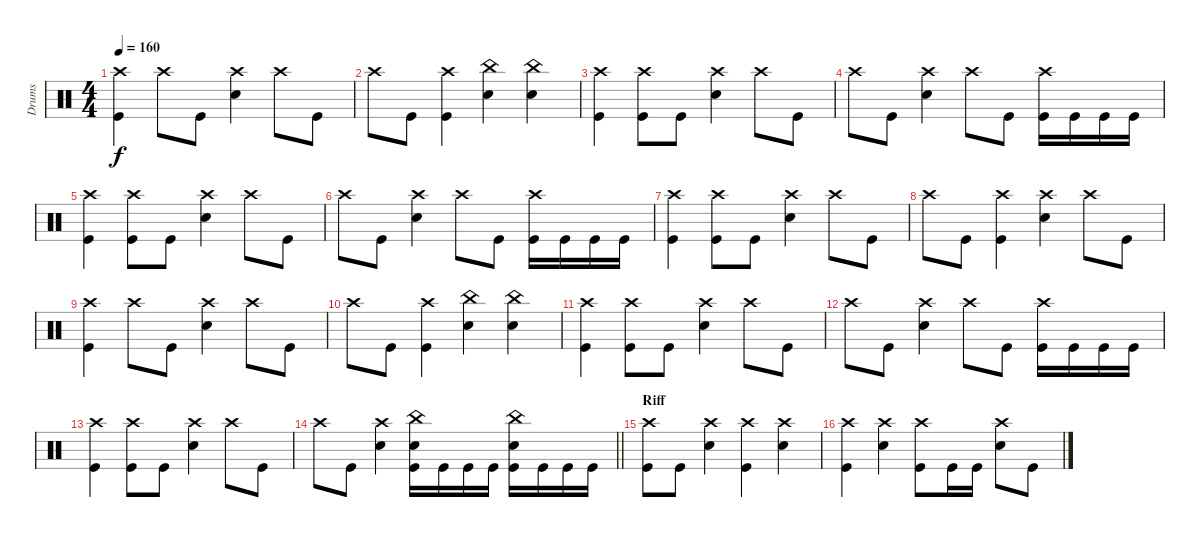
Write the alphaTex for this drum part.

\track ("Drums" "Drums") {instrument percussion}
\staff {score}
\articulation defaults
\ts (4 4)
\tempo 160
\clef neutral
\ks c
("Kick (hit)" "Crash high (hit)").4{dy f} "Crash high (hit)".8 "Kick (hit)".8 ("Snare (hit) 2" "Crash high (hit)").4 "Crash high (hit)".8 "Kick (hit)".8 |
"Crash high (hit)".8 "Kick (hit)".8 ("Kick (hit)" "Crash high (hit)").4 ("Snare (hit) 2" "China (hit)").4 ("Snare (hit) 2" "China (hit)").4 |
("Kick (hit)" "Crash high (hit)").4 ("Kick (hit)" "Crash high (hit)").8 "Kick (hit)".8 ("Crash high (hit)" "Snare (hit) 2").4 "Crash high (hit)".8 "Kick (hit)".8 |
"Crash high (hit)".8 "Kick (hit)".8 ("Snare (hit) 2" "Crash high (hit)").4 "Crash high (hit)".8 "Kick (hit)".8 ("Kick (hit)" "Crash high (hit)").16 "Kick (hit)".16 "Kick (hit)".16 "Kick (hit)".16 |
("Kick (hit)" "Crash high (hit)").4 ("Kick (hit)" "Crash high (hit)").8 "Kick (hit)".8 ("Crash high (hit)" "Snare (hit) 2").4 "Crash high (hit)".8 "Kick (hit)".8 |
"Crash high (hit)".8 "Kick (hit)".8 ("Snare (hit) 2" "Crash high (hit)").4 "Crash high (hit)".8 "Kick (hit)".8 ("Kick (hit)" "Crash high (hit)").16 "Kick (hit)".16 "Kick (hit)".16 "Kick (hit)".16 |
("Kick (hit)" "Crash high (hit)").4 ("Kick (hit)" "Crash high (hit)").8 "Kick (hit)".8 ("Snare (hit) 2" "Crash high (hit)").4 "Crash high (hit)".8 "Kick (hit)".8 |
"Crash high (hit)".8 "Kick (hit)".8 ("Kick (hit)" "Crash high (hit)").4 ("Snare (hit) 2" "Crash high (hit)").4 "Crash high (hit)".8 "Kick (hit)".8 |
("Kick (hit)" "Crash high (hit)").4 "Crash high (hit)".8 "Kick (hit)".8 ("Snare (hit) 2" "Crash high (hit)").4 "Crash high (hit)".8 "Kick (hit)".8 |
"Crash high (hit)".8 "Kick (hit)".8 ("Kick (hit)" "Crash high (hit)").4 ("Snare (hit) 2" "China (hit)").4 ("Snare (hit) 2" "China (hit)").4 |
("Kick (hit)" "Crash high (hit)").4 ("Kick (hit)" "Crash high (hit)").8 "Kick (hit)".8 ("Crash high (hit)" "Snare (hit) 2").4 "Crash high (hit)".8 "Kick (hit)".8 |
"Crash high (hit)".8 "Kick (hit)".8 ("Snare (hit) 2" "Crash high (hit)").4 "Crash high (hit)".8 "Kick (hit)".8 ("Kick (hit)" "Crash high (hit)").16 "Kick (hit)".16 "Kick (hit)".16 "Kick (hit)".16 |
("Kick (hit)" "Crash high (hit)").4 ("Kick (hit)" "Crash high (hit)").8 "Kick (hit)".8 ("Crash high (hit)" "Snare (hit) 2").4 "Crash high (hit)".8 "Kick (hit)".8 |
\barLineRight lightlight "Crash high (hit)".8 "Kick (hit)".8
("Snare (hit) 2" "Crash high (hit)").4 ("Kick (hit)" "China (hit)" "Snare (hit) 2").16 "Kick (hit)".16 "Kick (hit)".16 "Kick (hit)".16 ("Kick (hit)" "China (hit)" "Snare (hit) 2").16 "Kick (hit)".16 "Kick (hit)".16 "Kick (hit)".16 |
\section ("" "Riff")
("Kick (hit)" "Crash high (hit)").8 "Kick (hit)".8 ("Snare (hit) 2" "Crash high (hit)").4 ("Kick (hit)" "Crash high (hit)").4 ("Snare (hit) 2" "Crash high (hit)").4 |
("Kick (hit)" "Crash high (hit)").4 ("Snare (hit) 2" "Crash high (hit)").4 ("Kick (hit)" "Crash high (hit)").8 "Kick (hit)".16 "Kick (hit)".16 ("Snare (hit) 2" "Crash high (hit)").8 "Kick (hit)".8
